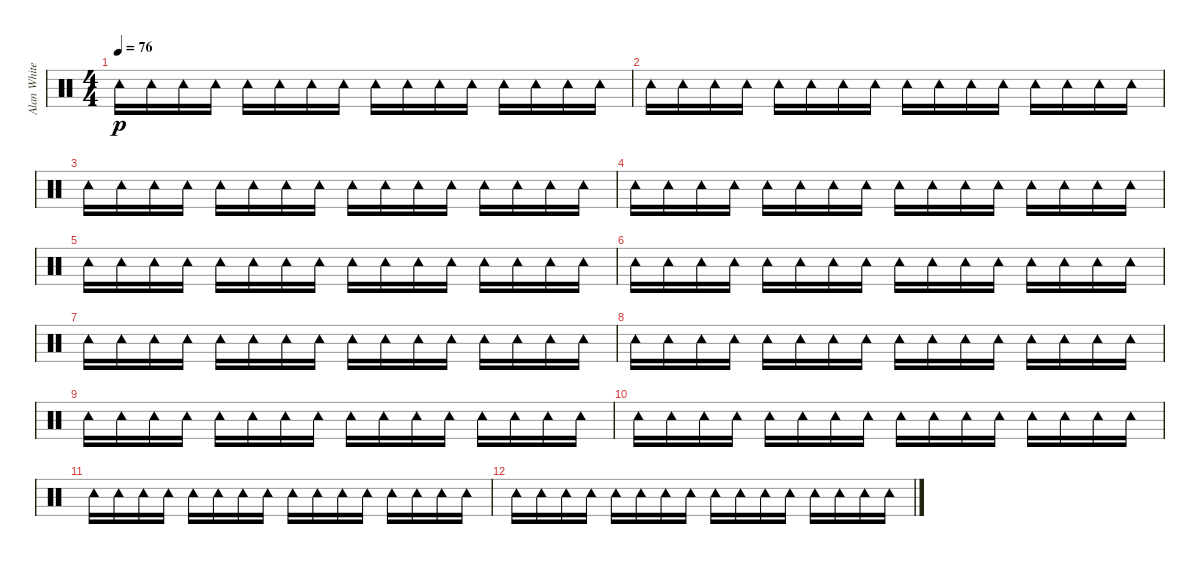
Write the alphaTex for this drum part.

\track ("Alan White" "Alan White") {instrument percussion}
\staff {score}
\articulation defaults
\ts (4 4)
\tempo 76
\clef neutral
\ks c "Tambourine (hit)".16{dy p} "Tambourine (hit)".16 "Tambourine (hit)".16 "Tambourine (hit)".16 "Tambourine (hit)".16 "Tambourine (hit)".16 "Tambourine (hit)".16 "Tambourine (hit)".16 "Tambourine (hit)".16 "Tambourine (hit)".16 "Tambourine (hit)".16 "Tambourine (hit)".16 "Tambourine (hit)".16 "Tambourine (hit)".16 "Tambourine (hit)".16 "Tambourine (hit)".16
|
"Tambourine (hit)".16 "Tambourine (hit)".16 "Tambourine (hit)".16 "Tambourine (hit)".16 "Tambourine (hit)".16 "Tambourine (hit)".16 "Tambourine (hit)".16 "Tambourine (hit)".16 "Tambourine (hit)".16 "Tambourine (hit)".16 "Tambourine (hit)".16 "Tambourine (hit)".16 "Tambourine (hit)".16 "Tambourine (hit)".16 "Tambourine (hit)".16 "Tambourine (hit)".16 |
"Tambourine (hit)".16 "Tambourine (hit)".16 "Tambourine (hit)".16 "Tambourine (hit)".16 "Tambourine (hit)".16 "Tambourine (hit)".16 "Tambourine (hit)".16 "Tambourine (hit)".16 "Tambourine (hit)".16 "Tambourine (hit)".16 "Tambourine (hit)".16 "Tambourine (hit)".16 "Tambourine (hit)".16 "Tambourine (hit)".16 "Tambourine (hit)".16 "Tambourine (hit)".16 |
"Tambourine (hit)".16 "Tambourine (hit)".16 "Tambourine (hit)".16 "Tambourine (hit)".16 "Tambourine (hit)".16 "Tambourine (hit)".16 "Tambourine (hit)".16 "Tambourine (hit)".16 "Tambourine (hit)".16 "Tambourine (hit)".16 "Tambourine (hit)".16 "Tambourine (hit)".16 "Tambourine (hit)".16 "Tambourine (hit)".16 "Tambourine (hit)".16 "Tambourine (hit)".16 |
"Tambourine (hit)".16 "Tambourine (hit)".16 "Tambourine (hit)".16 "Tambourine (hit)".16 "Tambourine (hit)".16 "Tambourine (hit)".16 "Tambourine (hit)".16 "Tambourine (hit)".16 "Tambourine (hit)".16 "Tambourine (hit)".16 "Tambourine (hit)".16 "Tambourine (hit)".16 "Tambourine (hit)".16 "Tambourine (hit)".16 "Tambourine (hit)".16 "Tambourine (hit)".16 |
"Tambourine (hit)".16 "Tambourine (hit)".16 "Tambourine (hit)".16 "Tambourine (hit)".16 "Tambourine (hit)".16 "Tambourine (hit)".16 "Tambourine (hit)".16 "Tambourine (hit)".16 "Tambourine (hit)".16 "Tambourine (hit)".16 "Tambourine (hit)".16 "Tambourine (hit)".16 "Tambourine (hit)".16 "Tambourine (hit)".16 "Tambourine (hit)".16 "Tambourine (hit)".16 |
"Tambourine (hit)".16 "Tambourine (hit)".16 "Tambourine (hit)".16 "Tambourine (hit)".16 "Tambourine (hit)".16 "Tambourine (hit)".16 "Tambourine (hit)".16 "Tambourine (hit)".16 "Tambourine (hit)".16 "Tambourine (hit)".16 "Tambourine (hit)".16 "Tambourine (hit)".16 "Tambourine (hit)".16 "Tambourine (hit)".16 "Tambourine (hit)".16 "Tambourine (hit)".16 |
"Tambourine (hit)".16 "Tambourine (hit)".16 "Tambourine (hit)".16 "Tambourine (hit)".16 "Tambourine (hit)".16 "Tambourine (hit)".16 "Tambourine (hit)".16 "Tambourine (hit)".16 "Tambourine (hit)".16 "Tambourine (hit)".16 "Tambourine (hit)".16 "Tambourine (hit)".16 "Tambourine (hit)".16 "Tambourine (hit)".16 "Tambourine (hit)".16 "Tambourine (hit)".16 |
"Tambourine (hit)".16 "Tambourine (hit)".16 "Tambourine (hit)".16 "Tambourine (hit)".16 "Tambourine (hit)".16 "Tambourine (hit)".16 "Tambourine (hit)".16 "Tambourine (hit)".16 "Tambourine (hit)".16 "Tambourine (hit)".16 "Tambourine (hit)".16 "Tambourine (hit)".16 "Tambourine (hit)".16 "Tambourine (hit)".16 "Tambourine (hit)".16 "Tambourine (hit)".16 |
"Tambourine (hit)".16 "Tambourine (hit)".16 "Tambourine (hit)".16 "Tambourine (hit)".16 "Tambourine (hit)".16 "Tambourine (hit)".16 "Tambourine (hit)".16 "Tambourine (hit)".16 "Tambourine (hit)".16 "Tambourine (hit)".16 "Tambourine (hit)".16 "Tambourine (hit)".16 "Tambourine (hit)".16 "Tambourine (hit)".16 "Tambourine (hit)".16 "Tambourine (hit)".16 |
"Tambourine (hit)".16 "Tambourine (hit)".16 "Tambourine (hit)".16 "Tambourine (hit)".16 "Tambourine (hit)".16 "Tambourine (hit)".16 "Tambourine (hit)".16 "Tambourine (hit)".16 "Tambourine (hit)".16 "Tambourine (hit)".16 "Tambourine (hit)".16 "Tambourine (hit)".16 "Tambourine (hit)".16 "Tambourine (hit)".16 "Tambourine (hit)".16 "Tambourine (hit)".16 |
"Tambourine (hit)".16 "Tambourine (hit)".16 "Tambourine (hit)".16 "Tambourine (hit)".16 "Tambourine (hit)".16 "Tambourine (hit)".16 "Tambourine (hit)".16 "Tambourine (hit)".16 "Tambourine (hit)".16 "Tambourine (hit)".16 "Tambourine (hit)".16 "Tambourine (hit)".16 "Tambourine (hit)".16 "Tambourine (hit)".16 "Tambourine (hit)".16 "Tambourine (hit)".16
